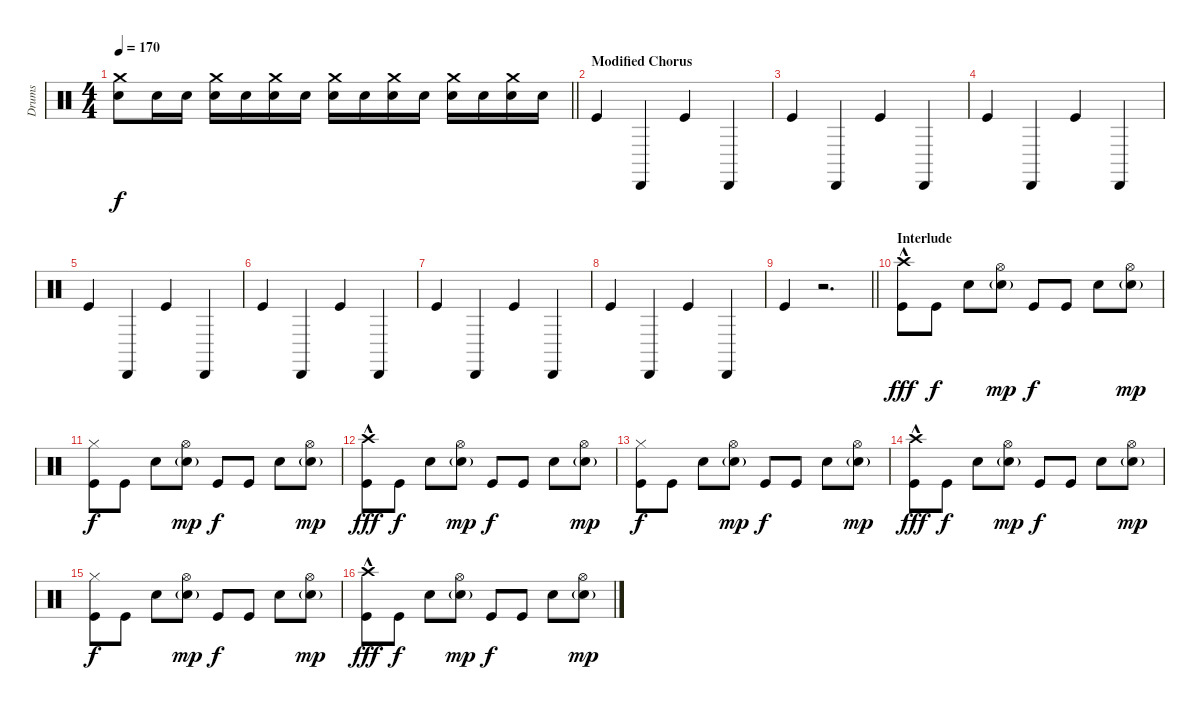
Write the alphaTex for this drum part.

\track ("Drums" "Drums") {instrument percussion}
\staff {score}
\articulation defaults
\ts (4 4)
\tempo 170
\clef neutral
\barLineRight lightlight
\ks c
("Crash medium (hit)" "Electric Snare (hit)").8{dy f} "Electric Snare (hit)".16 "Electric Snare (hit)".16 ("Crash medium (hit)" "Electric Snare (hit)").16 "Electric Snare (hit)".16 ("Crash medium (hit)" "Electric Snare (hit)").16 "Electric Snare (hit)".16 ("Crash medium (hit)" "Electric Snare (hit)").16 "Electric Snare (hit)".16 ("Crash medium (hit)" "Electric Snare (hit)").16 "Electric Snare (hit)".16 ("Crash medium (hit)" "Electric Snare (hit)").16 "Electric Snare (hit)".16 ("Crash medium (hit)" "Electric Snare (hit)").16 "Electric Snare (hit)".16 |
\section ("" "Modified Chorus")
"Kick (hit)".4 "Cabasa (hit)".4 "Kick (hit)".4 "Cabasa (hit)".4 |
"Kick (hit)".4 "Cabasa (hit)".4 "Kick (hit)".4 "Cabasa (hit)".4 |
"Kick (hit)".4 "Cabasa (hit)".4 "Kick (hit)".4 "Cabasa (hit)".4 |
"Kick (hit)".4 "Cabasa (hit)".4 "Kick (hit)".4 "Cabasa (hit)".4 |
"Kick (hit)".4 "Cabasa (hit)".4 "Kick (hit)".4 "Cabasa (hit)".4 |
"Kick (hit)".4 "Cabasa (hit)".4 "Kick (hit)".4 "Cabasa (hit)".4 |
"Kick (hit)".4 "Cabasa (hit)".4 "Kick (hit)".4 "Cabasa (hit)".4 |
\barLineRight lightlight "Kick (hit)".4
r.2{d} |
\section ("" "Interlude")
("Crash high (hit)"{hac} "Kick (hit)").8{dy fff} "Kick (hit)".8{dy f} "Electric Snare (hit)".8 ("Hi-Hat (open)" "Electric Snare (hit)"{g}).8{dy mp} "Kick (hit)".8{dy f} "Kick (hit)".8 "Electric Snare (hit)".8 ("Hi-Hat (open)" "Electric Snare (hit)"{g}).8{dy mp} |
("Hi-Hat (closed)" "Kick (hit)").8{dy f} "Kick (hit)".8 "Electric Snare (hit)".8 ("Hi-Hat (open)" "Electric Snare (hit)"{g}).8{dy mp} "Kick (hit)".8{dy f} "Kick (hit)".8 "Electric Snare (hit)".8 ("Hi-Hat (open)" "Electric Snare (hit)"{g}).8{dy mp} |
("Crash high (hit)"{hac} "Kick (hit)").8{dy fff} "Kick (hit)".8{dy f} "Electric Snare (hit)".8 ("Hi-Hat (open)" "Electric Snare (hit)"{g}).8{dy mp} "Kick (hit)".8{dy f} "Kick (hit)".8 "Electric Snare (hit)".8 ("Hi-Hat (open)" "Electric Snare (hit)"{g}).8{dy mp} |
("Hi-Hat (closed)" "Kick (hit)").8{dy f} "Kick (hit)".8 "Electric Snare (hit)".8 ("Hi-Hat (open)" "Electric Snare (hit)"{g}).8{dy mp} "Kick (hit)".8{dy f} "Kick (hit)".8 "Electric Snare (hit)".8 ("Hi-Hat (open)" "Electric Snare (hit)"{g}).8{dy mp} |
("Crash high (hit)"{hac} "Kick (hit)").8{dy fff} "Kick (hit)".8{dy f} "Electric Snare (hit)".8 ("Hi-Hat (open)" "Electric Snare (hit)"{g}).8{dy mp} "Kick (hit)".8{dy f} "Kick (hit)".8 "Electric Snare (hit)".8 ("Hi-Hat (open)" "Electric Snare (hit)"{g}).8{dy mp} |
("Hi-Hat (closed)" "Kick (hit)").8{dy f} "Kick (hit)".8 "Electric Snare (hit)".8 ("Hi-Hat (open)" "Electric Snare (hit)"{g}).8{dy mp} "Kick (hit)".8{dy f} "Kick (hit)".8 "Electric Snare (hit)".8 ("Hi-Hat (open)" "Electric Snare (hit)"{g}).8{dy mp} |
("Crash high (hit)"{hac} "Kick (hit)").8{dy fff} "Kick (hit)".8{dy f} "Electric Snare (hit)".8 ("Hi-Hat (open)" "Electric Snare (hit)"{g}).8{dy mp} "Kick (hit)".8{dy f} "Kick (hit)".8 "Electric Snare (hit)".8 ("Hi-Hat (open)" "Electric Snare (hit)"{g}).8{dy mp}
